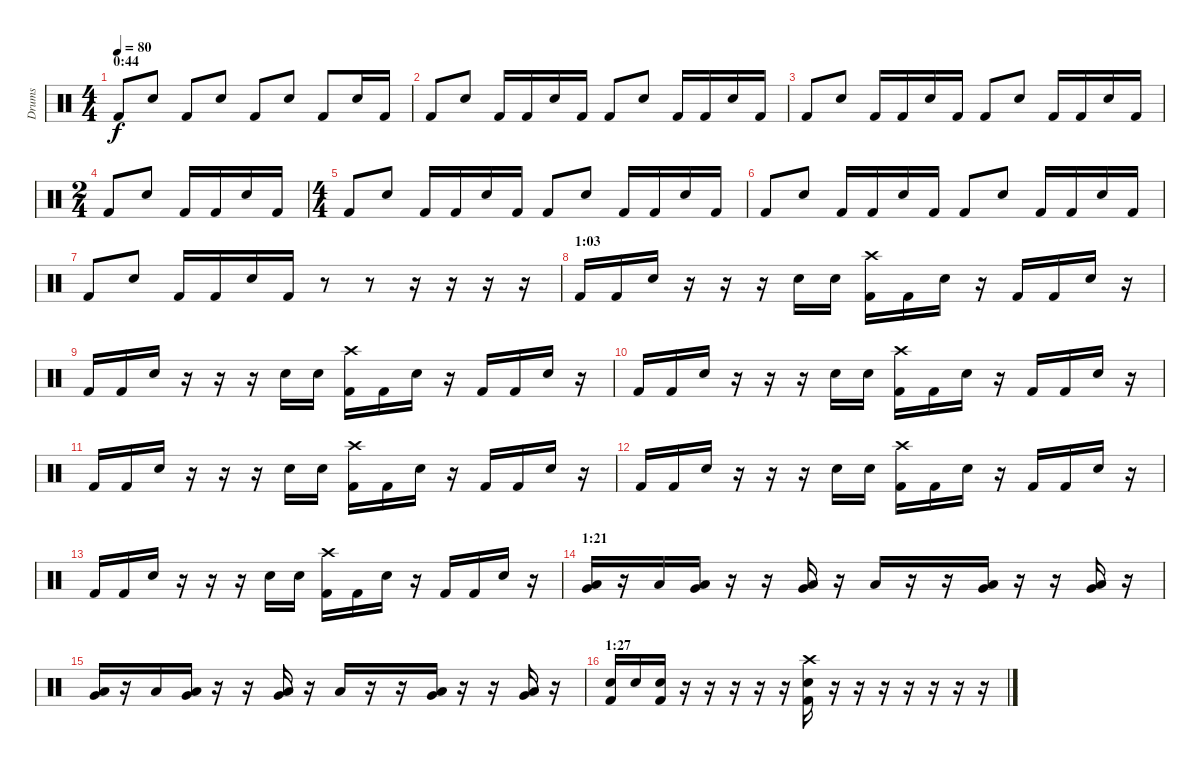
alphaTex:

\track ("Drums" "Drums") {instrument percussion}
\staff {score}
\articulation defaults
\ts (4 4)
\section ("" "0:44")
\tempo 80
\clef neutral
\ks c "Kick (hit) 2".8{dy f} "Snare (hit) 2".8 "Kick (hit) 2".8 "Snare (hit) 2".8 "Kick (hit) 2".8 "Snare (hit) 2".8 "Kick (hit) 2".8 "Snare (hit) 2".16 "Kick (hit) 2".16
|
"Kick (hit) 2".8 "Snare (hit) 2".8 "Kick (hit) 2".16 "Kick (hit) 2".16 "Snare (hit) 2".16 "Kick (hit) 2".16 "Kick (hit) 2".8 "Snare (hit) 2".8 "Kick (hit) 2".16 "Kick (hit) 2".16 "Snare (hit) 2".16 "Kick (hit) 2".16 |
"Kick (hit) 2".8 "Snare (hit) 2".8 "Kick (hit) 2".16 "Kick (hit) 2".16 "Snare (hit) 2".16 "Kick (hit) 2".16 "Kick (hit) 2".8 "Snare (hit) 2".8 "Kick (hit) 2".16 "Kick (hit) 2".16 "Snare (hit) 2".16 "Kick (hit) 2".16 |
\ts (2 4)
"Kick (hit) 2".8 "Snare (hit) 2".8 "Kick (hit) 2".16 "Kick (hit) 2".16 "Snare (hit) 2".16 "Kick (hit) 2".16 |
\ts (4 4)
"Kick (hit) 2".8 "Snare (hit) 2".8 "Kick (hit) 2".16 "Kick (hit) 2".16 "Snare (hit) 2".16 "Kick (hit) 2".16 "Kick (hit) 2".8 "Snare (hit) 2".8 "Kick (hit) 2".16 "Kick (hit) 2".16 "Snare (hit) 2".16 "Kick (hit) 2".16 |
"Kick (hit) 2".8 "Snare (hit) 2".8 "Kick (hit) 2".16 "Kick (hit) 2".16 "Snare (hit) 2".16 "Kick (hit) 2".16 "Kick (hit) 2".8 "Snare (hit) 2".8 "Kick (hit) 2".16 "Kick (hit) 2".16 "Snare (hit) 2".16 "Kick (hit) 2".16 |
"Kick (hit) 2".8 "Snare (hit) 2".8 "Kick (hit) 2".16 "Kick (hit) 2".16 "Snare (hit) 2".16 "Kick (hit) 2".16 r.8 r.8 r.16 r.16 r.16 r.16 |
\section ("" "1:03")
"Kick (hit) 2".16 "Kick (hit) 2".16 "Snare (hit) 2".16 r.16 r.16 r.16 "Snare (hit) 2".16 "Snare (hit) 2".16 ("Crash high (hit)" "Kick (hit) 2").16 "Kick (hit) 2".16 "Snare (hit) 2".16 r.16 "Kick (hit) 2".16 "Kick (hit) 2".16 "Snare (hit) 2".16 r.16 |
"Kick (hit) 2".16 "Kick (hit) 2".16 "Snare (hit) 2".16 r.16 r.16 r.16 "Snare (hit) 2".16 "Snare (hit) 2".16 ("Crash high (hit)" "Kick (hit) 2").16 "Kick (hit) 2".16 "Snare (hit) 2".16 r.16 "Kick (hit) 2".16 "Kick (hit) 2".16 "Snare (hit) 2".16 r.16 |
"Kick (hit) 2".16 "Kick (hit) 2".16 "Snare (hit) 2".16 r.16 r.16 r.16 "Snare (hit) 2".16 "Snare (hit) 2".16 ("Crash high (hit)" "Kick (hit) 2").16 "Kick (hit) 2".16 "Snare (hit) 2".16 r.16 "Kick (hit) 2".16 "Kick (hit) 2".16 "Snare (hit) 2".16 r.16 |
"Kick (hit) 2".16 "Kick (hit) 2".16 "Snare (hit) 2".16 r.16 r.16 r.16 "Snare (hit) 2".16 "Snare (hit) 2".16 ("Crash high (hit)" "Kick (hit) 2").16 "Kick (hit) 2".16 "Snare (hit) 2".16 r.16 "Kick (hit) 2".16 "Kick (hit) 2".16 "Snare (hit) 2".16 r.16 |
"Kick (hit) 2".16 "Kick (hit) 2".16 "Snare (hit) 2".16 r.16 r.16 r.16 "Snare (hit) 2".16 "Snare (hit) 2".16 ("Crash high (hit)" "Kick (hit) 2").16 "Kick (hit) 2".16 "Snare (hit) 2".16 r.16 "Kick (hit) 2".16 "Kick (hit) 2".16 "Snare (hit) 2".16 r.16 |
"Kick (hit) 2".16 "Kick (hit) 2".16 "Snare (hit) 2".16 r.16 r.16 r.16 "Snare (hit) 2".16 "Snare (hit) 2".16 ("Crash high (hit)" "Kick (hit) 2").16 "Kick (hit) 2".16 "Snare (hit) 2".16 r.16 "Kick (hit) 2".16 "Kick (hit) 2".16 "Snare (hit) 2".16 r.16 |
\section ("" "1:21")
("Very Low Tom (hit)" "Low Floor Tom (hit)").16 r.16 "Low Floor Tom (hit)".16 ("Very Low Tom (hit)" "Low Floor Tom (hit)").16 r.16 r.16 ("Very Low Tom (hit)" "Low Floor Tom (hit)").16 r.16 "Low Floor Tom (hit)".16 r.16 r.16 ("Very Low Tom (hit)" "Low Floor Tom (hit)").16 r.16 r.16 ("Very Low Tom (hit)" "Low Floor Tom (hit)").16 r.16 |
("Very Low Tom (hit)" "Low Floor Tom (hit)").16 r.16 "Low Floor Tom (hit)".16 ("Very Low Tom (hit)" "Low Floor Tom (hit)").16 r.16 r.16 ("Very Low Tom (hit)" "Low Floor Tom (hit)").16 r.16 "Low Floor Tom (hit)".16 r.16 r.16 ("Very Low Tom (hit)" "Low Floor Tom (hit)").16 r.16 r.16 ("Very Low Tom (hit)" "Low Floor Tom (hit)").16 r.16 |
\section ("" "1:27")
("Snare (hit) 2" "Kick (hit) 2").16 "Snare (hit) 2".16 ("Snare (hit) 2" "Kick (hit) 2").16 r.16 r.16 r.16 r.16 r.16 ("Crash high (hit)" "Snare (hit) 2" "Kick (hit) 2").16 r.16 r.16 r.16 r.16 r.16 r.16 r.16
